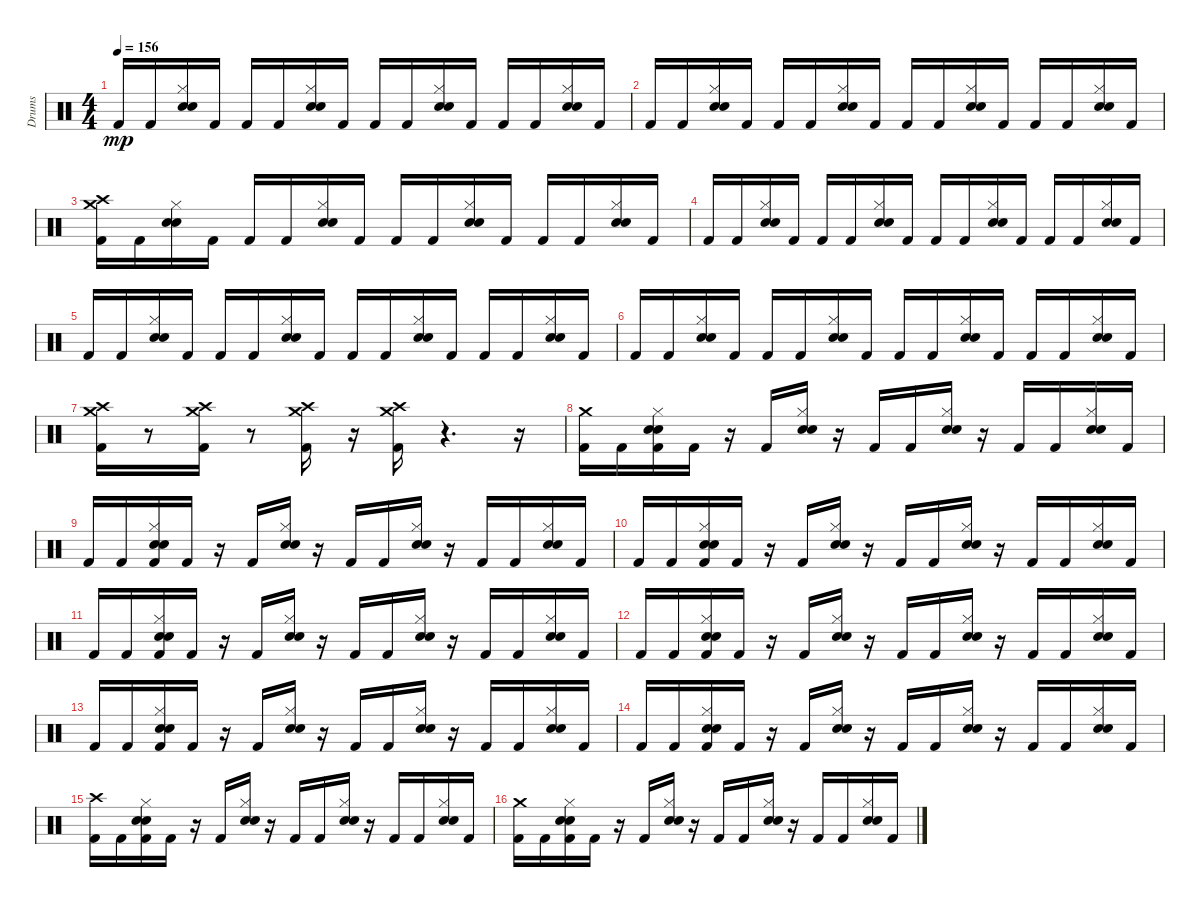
\track ("Drums" "Drums") {instrument percussion}
\staff {score}
\articulation defaults
\ts (4 4)
\tempo 156
\clef neutral
\ks c "Kick (hit) 2".16{dy mp} "Kick (hit) 2".16
("Electric Snare (hit)" "Hi-Hat (closed)" "Snare (hit) 2").16 "Kick (hit) 2".16 "Kick (hit) 2".16 "Kick (hit) 2".16 ("Electric Snare (hit)" "Snare (hit) 2" "Hi-Hat (closed)").16 "Kick (hit) 2".16 "Kick (hit) 2".16 "Kick (hit) 2".16 ("Hi-Hat (closed)" "Snare (hit) 2" "Electric Snare (hit)").16 "Kick (hit) 2".16 "Kick (hit) 2".16 "Kick (hit) 2".16 ("Snare (hit) 2" "Hi-Hat (closed)" "Electric Snare (hit)").16 "Kick (hit) 2".16 |
"Kick (hit) 2".16 "Kick (hit) 2".16 ("Electric Snare (hit)" "Hi-Hat (closed)" "Snare (hit) 2").16 "Kick (hit) 2".16 "Kick (hit) 2".16 "Kick (hit) 2".16 ("Snare (hit) 2" "Hi-Hat (closed)" "Electric Snare (hit)").16 "Kick (hit) 2".16 "Kick (hit) 2".16 "Kick (hit) 2".16 ("Hi-Hat (closed)" "Electric Snare (hit)" "Snare (hit) 2").16 "Kick (hit) 2".16 "Kick (hit) 2".16 "Kick (hit) 2".16 ("Snare (hit) 2" "Hi-Hat (closed)" "Electric Snare (hit)").16 "Kick (hit) 2".16 |
("Crash medium (hit)" "Crash high (hit)" "Kick (hit) 2").16 "Kick (hit) 2".16 ("Snare (hit) 2" "Hi-Hat (closed)" "Electric Snare (hit)").16 "Kick (hit) 2".16 "Kick (hit) 2".16 "Kick (hit) 2".16 ("Hi-Hat (closed)" "Snare (hit) 2" "Electric Snare (hit)").16 "Kick (hit) 2".16 "Kick (hit) 2".16 "Kick (hit) 2".16 ("Snare (hit) 2" "Electric Snare (hit)" "Hi-Hat (closed)").16 "Kick (hit) 2".16 "Kick (hit) 2".16 "Kick (hit) 2".16 ("Snare (hit) 2" "Electric Snare (hit)" "Hi-Hat (closed)").16 "Kick (hit) 2".16 |
"Kick (hit) 2".16 "Kick (hit) 2".16 ("Snare (hit) 2" "Electric Snare (hit)" "Hi-Hat (closed)").16 "Kick (hit) 2".16 "Kick (hit) 2".16 "Kick (hit) 2".16 ("Snare (hit) 2" "Electric Snare (hit)" "Hi-Hat (closed)").16 "Kick (hit) 2".16 "Kick (hit) 2".16 "Kick (hit) 2".16 ("Hi-Hat (closed)" "Snare (hit) 2" "Electric Snare (hit)").16 "Kick (hit) 2".16 "Kick (hit) 2".16 "Kick (hit) 2".16 ("Hi-Hat (closed)" "Electric Snare (hit)" "Snare (hit) 2").16 "Kick (hit) 2".16 |
"Kick (hit) 2".16 "Kick (hit) 2".16 ("Electric Snare (hit)" "Hi-Hat (closed)" "Snare (hit) 2").16 "Kick (hit) 2".16 "Kick (hit) 2".16 "Kick (hit) 2".16 ("Electric Snare (hit)" "Snare (hit) 2" "Hi-Hat (closed)").16 "Kick (hit) 2".16 "Kick (hit) 2".16 "Kick (hit) 2".16 ("Snare (hit) 2" "Electric Snare (hit)" "Hi-Hat (closed)").16 "Kick (hit) 2".16 "Kick (hit) 2".16 "Kick (hit) 2".16 ("Electric Snare (hit)" "Snare (hit) 2" "Hi-Hat (closed)").16 "Kick (hit) 2".16 |
"Kick (hit) 2".16 "Kick (hit) 2".16 ("Electric Snare (hit)" "Hi-Hat (closed)" "Snare (hit) 2").16 "Kick (hit) 2".16 "Kick (hit) 2".16 "Kick (hit) 2".16 ("Snare (hit) 2" "Electric Snare (hit)" "Hi-Hat (closed)").16 "Kick (hit) 2".16 "Kick (hit) 2".16 "Kick (hit) 2".16 ("Electric Snare (hit)" "Snare (hit) 2" "Hi-Hat (closed)").16 "Kick (hit) 2".16 "Kick (hit) 2".16 "Kick (hit) 2".16 ("Electric Snare (hit)" "Snare (hit) 2" "Hi-Hat (closed)").16 "Kick (hit) 2".16 |
("Crash high (hit)" "Kick (hit) 2" "Crash medium (hit)").16 r.8 ("Crash high (hit)" "Crash medium (hit)" "Kick (hit) 2").16 r.8 ("Crash high (hit)" "Crash medium (hit)" "Kick (hit) 2").16 r.16 ("Crash high (hit)" "Kick (hit) 2" "Crash medium (hit)").16 r.4{d} r.16 |
("Crash medium (hit)" "Kick (hit) 2").16 "Kick (hit) 2".16 ("Hi-Hat (closed)" "Snare (hit) 2" "Kick (hit) 2" "Electric Snare (hit)").16 "Kick (hit) 2".16 r.16 "Kick (hit) 2".16 ("Electric Snare (hit)" "Hi-Hat (closed)" "Snare (hit) 2").16 r.16 "Kick (hit) 2".16 "Kick (hit) 2".16 ("Snare (hit) 2" "Electric Snare (hit)" "Hi-Hat (closed)").16 r.16 "Kick (hit) 2".16 "Kick (hit) 2".16 ("Electric Snare (hit)" "Snare (hit) 2" "Hi-Hat (closed)").16 "Kick (hit) 2".16 |
"Kick (hit) 2".16 "Kick (hit) 2".16 ("Electric Snare (hit)" "Hi-Hat (closed)" "Kick (hit) 2" "Snare (hit) 2").16 "Kick (hit) 2".16 r.16 "Kick (hit) 2".16 ("Hi-Hat (closed)" "Snare (hit) 2" "Electric Snare (hit)").16 r.16 "Kick (hit) 2".16 "Kick (hit) 2".16 ("Electric Snare (hit)" "Hi-Hat (closed)" "Snare (hit) 2").16 r.16 "Kick (hit) 2".16 "Kick (hit) 2".16 ("Snare (hit) 2" "Hi-Hat (closed)" "Electric Snare (hit)").16 "Kick (hit) 2".16 |
"Kick (hit) 2".16 "Kick (hit) 2".16 ("Electric Snare (hit)" "Snare (hit) 2" "Kick (hit) 2" "Hi-Hat (closed)").16 "Kick (hit) 2".16 r.16 "Kick (hit) 2".16 ("Hi-Hat (closed)" "Electric Snare (hit)" "Snare (hit) 2").16 r.16 "Kick (hit) 2".16 "Kick (hit) 2".16 ("Hi-Hat (closed)" "Electric Snare (hit)" "Snare (hit) 2").16 r.16 "Kick (hit) 2".16 "Kick (hit) 2".16 ("Hi-Hat (closed)" "Electric Snare (hit)" "Snare (hit) 2").16 "Kick (hit) 2".16 |
"Kick (hit) 2".16 "Kick (hit) 2".16 ("Snare (hit) 2" "Hi-Hat (closed)" "Kick (hit) 2" "Electric Snare (hit)").16 "Kick (hit) 2".16 r.16 "Kick (hit) 2".16 ("Hi-Hat (closed)" "Snare (hit) 2" "Electric Snare (hit)").16 r.16 "Kick (hit) 2".16 "Kick (hit) 2".16 ("Electric Snare (hit)" "Hi-Hat (closed)" "Snare (hit) 2").16 r.16 "Kick (hit) 2".16 "Kick (hit) 2".16 ("Snare (hit) 2" "Hi-Hat (closed)" "Electric Snare (hit)").16 "Kick (hit) 2".16 |
"Kick (hit) 2".16 "Kick (hit) 2".16 ("Snare (hit) 2" "Kick (hit) 2" "Electric Snare (hit)" "Hi-Hat (closed)").16 "Kick (hit) 2".16 r.16 "Kick (hit) 2".16 ("Snare (hit) 2" "Hi-Hat (closed)" "Electric Snare (hit)").16 r.16 "Kick (hit) 2".16 "Kick (hit) 2".16 ("Electric Snare (hit)" "Snare (hit) 2" "Hi-Hat (closed)").16 r.16 "Kick (hit) 2".16 "Kick (hit) 2".16 ("Snare (hit) 2" "Electric Snare (hit)" "Hi-Hat (closed)").16 "Kick (hit) 2".16 |
"Kick (hit) 2".16 "Kick (hit) 2".16 ("Kick (hit) 2" "Electric Snare (hit)" "Snare (hit) 2" "Hi-Hat (closed)").16 "Kick (hit) 2".16 r.16 "Kick (hit) 2".16 ("Snare (hit) 2" "Hi-Hat (closed)" "Electric Snare (hit)").16 r.16 "Kick (hit) 2".16 "Kick (hit) 2".16 ("Snare (hit) 2" "Electric Snare (hit)" "Hi-Hat (closed)").16 r.16 "Kick (hit) 2".16 "Kick (hit) 2".16 ("Electric Snare (hit)" "Hi-Hat (closed)" "Snare (hit) 2").16 "Kick (hit) 2".16 |
"Kick (hit) 2".16 "Kick (hit) 2".16 ("Electric Snare (hit)" "Hi-Hat (closed)" "Kick (hit) 2" "Snare (hit) 2").16 "Kick (hit) 2".16 r.16 "Kick (hit) 2".16 ("Snare (hit) 2" "Electric Snare (hit)" "Hi-Hat (closed)").16 r.16 "Kick (hit) 2".16 "Kick (hit) 2".16 ("Electric Snare (hit)" "Snare (hit) 2" "Hi-Hat (closed)").16 r.16 "Kick (hit) 2".16 "Kick (hit) 2".16 ("Electric Snare (hit)" "Snare (hit) 2" "Hi-Hat (closed)").16 "Kick (hit) 2".16 |
("Kick (hit) 2" "Crash high (hit)").16 "Kick (hit) 2".16 ("Snare (hit) 2" "Hi-Hat (closed)" "Kick (hit) 2" "Electric Snare (hit)").16 "Kick (hit) 2".16 r.16 "Kick (hit) 2".16 ("Electric Snare (hit)" "Snare (hit) 2" "Hi-Hat (closed)").16 r.16 "Kick (hit) 2".16 "Kick (hit) 2".16 ("Hi-Hat (closed)" "Snare (hit) 2" "Electric Snare (hit)").16 r.16 "Kick (hit) 2".16 "Kick (hit) 2".16 ("Snare (hit) 2" "Electric Snare (hit)" "Hi-Hat (closed)").16 "Kick (hit) 2".16 |
("Crash medium (hit)" "Kick (hit) 2").16 "Kick (hit) 2".16 ("Electric Snare (hit)" "Kick (hit) 2" "Snare (hit) 2" "Hi-Hat (closed)").16 "Kick (hit) 2".16 r.16 "Kick (hit) 2".16 ("Snare (hit) 2" "Electric Snare (hit)" "Hi-Hat (closed)").16 r.16 "Kick (hit) 2".16 "Kick (hit) 2".16 ("Snare (hit) 2" "Hi-Hat (closed)" "Electric Snare (hit)").16 r.16 "Kick (hit) 2".16 "Kick (hit) 2".16 ("Electric Snare (hit)" "Hi-Hat (closed)" "Snare (hit) 2").16 "Kick (hit) 2".16
